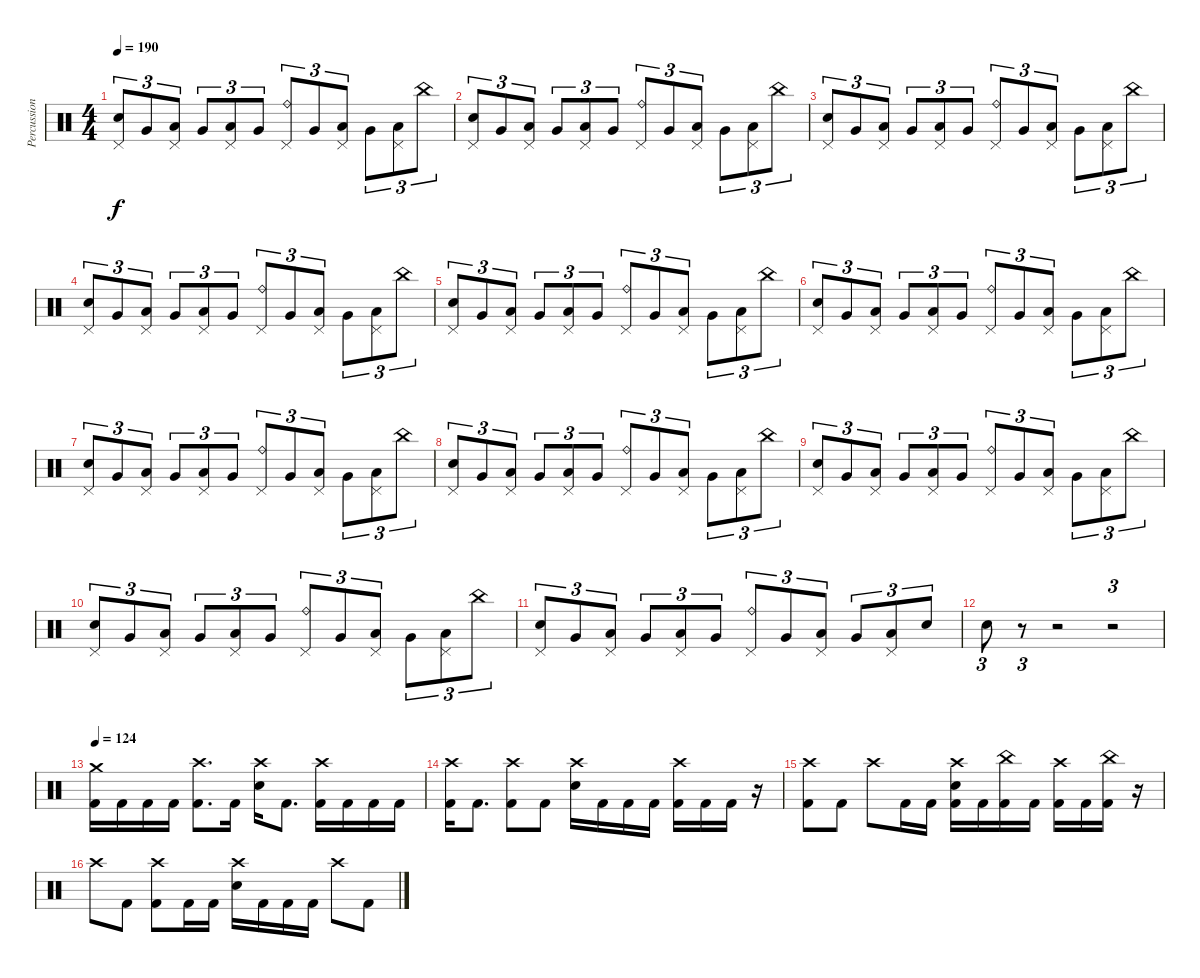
\track ("Percussion" "Percussion") {instrument percussion}
\staff {score}
\articulation defaults
\ts (4 4)
\tempo 190
\clef neutral
\ks c
("Pedal Hi-Hat (hit)" "Electric Snare (hit)").8{tu (3 2) dy f} "Very Low Tom (hit)".8{tu (3 2)} ("Pedal Hi-Hat (hit)" "Low Tom (hit)").8{tu (3 2)} "Very Low Tom (hit)".8{tu (3 2)} ("Pedal Hi-Hat (hit)" "Low Tom (hit)").8{tu (3 2)} "Very Low Tom (hit)".8{tu (3 2)} ("Ride (bell)" "Pedal Hi-Hat (hit)").8{tu (3 2)} "Very Low Tom (hit)".8{tu (3 2)} ("Pedal Hi-Hat (hit)" "Low Tom (hit)").8{tu (3 2)} "Very Low Tom (hit)".8{tu (3 2)} ("Pedal Hi-Hat (hit)" "Low Tom (hit)").8{tu (3 2)} "China (hit)".8{tu (3 2)} |
("Pedal Hi-Hat (hit)" "Electric Snare (hit)").8{tu (3 2)} "Very Low Tom (hit)".8{tu (3 2)} ("Pedal Hi-Hat (hit)" "Low Tom (hit)").8{tu (3 2)} "Very Low Tom (hit)".8{tu (3 2)} ("Pedal Hi-Hat (hit)" "Low Tom (hit)").8{tu (3 2)} "Very Low Tom (hit)".8{tu (3 2)} ("Ride (bell)" "Pedal Hi-Hat (hit)").8{tu (3 2)} "Very Low Tom (hit)".8{tu (3 2)} ("Pedal Hi-Hat (hit)" "Low Tom (hit)").8{tu (3 2)} "Very Low Tom (hit)".8{tu (3 2)} ("Pedal Hi-Hat (hit)" "Low Tom (hit)").8{tu (3 2)} "China (hit)".8{tu (3 2)} |
("Pedal Hi-Hat (hit)" "Electric Snare (hit)").8{tu (3 2)} "Very Low Tom (hit)".8{tu (3 2)} ("Pedal Hi-Hat (hit)" "Low Tom (hit)").8{tu (3 2)} "Very Low Tom (hit)".8{tu (3 2)} ("Pedal Hi-Hat (hit)" "Low Tom (hit)").8{tu (3 2)} "Very Low Tom (hit)".8{tu (3 2)} ("Ride (bell)" "Pedal Hi-Hat (hit)").8{tu (3 2)} "Very Low Tom (hit)".8{tu (3 2)} ("Pedal Hi-Hat (hit)" "Low Tom (hit)").8{tu (3 2)} "Very Low Tom (hit)".8{tu (3 2)} ("Pedal Hi-Hat (hit)" "Low Tom (hit)").8{tu (3 2)} "China (hit)".8{tu (3 2)} |
("Pedal Hi-Hat (hit)" "Electric Snare (hit)").8{tu (3 2)} "Very Low Tom (hit)".8{tu (3 2)} ("Pedal Hi-Hat (hit)" "Low Tom (hit)").8{tu (3 2)} "Very Low Tom (hit)".8{tu (3 2)} ("Pedal Hi-Hat (hit)" "Low Tom (hit)").8{tu (3 2)} "Very Low Tom (hit)".8{tu (3 2)} ("Ride (bell)" "Pedal Hi-Hat (hit)").8{tu (3 2)} "Very Low Tom (hit)".8{tu (3 2)} ("Pedal Hi-Hat (hit)" "Low Tom (hit)").8{tu (3 2)} "Very Low Tom (hit)".8{tu (3 2)} ("Pedal Hi-Hat (hit)" "Low Tom (hit)").8{tu (3 2)} "China (hit)".8{tu (3 2)} |
("Pedal Hi-Hat (hit)" "Electric Snare (hit)").8{tu (3 2)} "Very Low Tom (hit)".8{tu (3 2)} ("Pedal Hi-Hat (hit)" "Low Tom (hit)").8{tu (3 2)} "Very Low Tom (hit)".8{tu (3 2)} ("Pedal Hi-Hat (hit)" "Low Tom (hit)").8{tu (3 2)} "Very Low Tom (hit)".8{tu (3 2)} ("Ride (bell)" "Pedal Hi-Hat (hit)").8{tu (3 2)} "Very Low Tom (hit)".8{tu (3 2)} ("Pedal Hi-Hat (hit)" "Low Tom (hit)").8{tu (3 2)} "Very Low Tom (hit)".8{tu (3 2)} ("Pedal Hi-Hat (hit)" "Low Tom (hit)").8{tu (3 2)} "China (hit)".8{tu (3 2)} |
("Pedal Hi-Hat (hit)" "Electric Snare (hit)").8{tu (3 2)} "Very Low Tom (hit)".8{tu (3 2)} ("Pedal Hi-Hat (hit)" "Low Tom (hit)").8{tu (3 2)} "Very Low Tom (hit)".8{tu (3 2)} ("Pedal Hi-Hat (hit)" "Low Tom (hit)").8{tu (3 2)} "Very Low Tom (hit)".8{tu (3 2)} ("Ride (bell)" "Pedal Hi-Hat (hit)").8{tu (3 2)} "Very Low Tom (hit)".8{tu (3 2)} ("Pedal Hi-Hat (hit)" "Low Tom (hit)").8{tu (3 2)} "Very Low Tom (hit)".8{tu (3 2)} ("Pedal Hi-Hat (hit)" "Low Tom (hit)").8{tu (3 2)} "China (hit)".8{tu (3 2)} |
("Pedal Hi-Hat (hit)" "Electric Snare (hit)").8{tu (3 2)} "Very Low Tom (hit)".8{tu (3 2)} ("Pedal Hi-Hat (hit)" "Low Tom (hit)").8{tu (3 2)} "Very Low Tom (hit)".8{tu (3 2)} ("Pedal Hi-Hat (hit)" "Low Tom (hit)").8{tu (3 2)} "Very Low Tom (hit)".8{tu (3 2)} ("Ride (bell)" "Pedal Hi-Hat (hit)").8{tu (3 2)} "Very Low Tom (hit)".8{tu (3 2)} ("Pedal Hi-Hat (hit)" "Low Tom (hit)").8{tu (3 2)} "Very Low Tom (hit)".8{tu (3 2)} ("Pedal Hi-Hat (hit)" "Low Tom (hit)").8{tu (3 2)} "China (hit)".8{tu (3 2)} |
("Pedal Hi-Hat (hit)" "Electric Snare (hit)").8{tu (3 2)} "Very Low Tom (hit)".8{tu (3 2)} ("Pedal Hi-Hat (hit)" "Low Tom (hit)").8{tu (3 2)} "Very Low Tom (hit)".8{tu (3 2)} ("Pedal Hi-Hat (hit)" "Low Tom (hit)").8{tu (3 2)} "Very Low Tom (hit)".8{tu (3 2)} ("Ride (bell)" "Pedal Hi-Hat (hit)").8{tu (3 2)} "Very Low Tom (hit)".8{tu (3 2)} ("Pedal Hi-Hat (hit)" "Low Tom (hit)").8{tu (3 2)} "Very Low Tom (hit)".8{tu (3 2)} ("Pedal Hi-Hat (hit)" "Low Tom (hit)").8{tu (3 2)} "China (hit)".8{tu (3 2)} |
("Pedal Hi-Hat (hit)" "Electric Snare (hit)").8{tu (3 2)} "Very Low Tom (hit)".8{tu (3 2)} ("Pedal Hi-Hat (hit)" "Low Tom (hit)").8{tu (3 2)} "Very Low Tom (hit)".8{tu (3 2)} ("Pedal Hi-Hat (hit)" "Low Tom (hit)").8{tu (3 2)} "Very Low Tom (hit)".8{tu (3 2)} ("Ride (bell)" "Pedal Hi-Hat (hit)").8{tu (3 2)} "Very Low Tom (hit)".8{tu (3 2)} ("Pedal Hi-Hat (hit)" "Low Tom (hit)").8{tu (3 2)} "Very Low Tom (hit)".8{tu (3 2)} ("Pedal Hi-Hat (hit)" "Low Tom (hit)").8{tu (3 2)} "China (hit)".8{tu (3 2)} |
("Pedal Hi-Hat (hit)" "Electric Snare (hit)").8{tu (3 2)} "Very Low Tom (hit)".8{tu (3 2)} ("Pedal Hi-Hat (hit)" "Low Tom (hit)").8{tu (3 2)} "Very Low Tom (hit)".8{tu (3 2)} ("Pedal Hi-Hat (hit)" "Low Tom (hit)").8{tu (3 2)} "Very Low Tom (hit)".8{tu (3 2)} ("Ride (bell)" "Pedal Hi-Hat (hit)").8{tu (3 2)} "Very Low Tom (hit)".8{tu (3 2)} ("Pedal Hi-Hat (hit)" "Low Tom (hit)").8{tu (3 2)} "Very Low Tom (hit)".8{tu (3 2)} ("Pedal Hi-Hat (hit)" "Low Tom (hit)").8{tu (3 2)} "China (hit)".8{tu (3 2)} |
("Pedal Hi-Hat (hit)" "Electric Snare (hit)").8{tu (3 2)} "Very Low Tom (hit)".8{tu (3 2)} ("Pedal Hi-Hat (hit)" "Low Tom (hit)").8{tu (3 2)} "Very Low Tom (hit)".8{tu (3 2)} ("Pedal Hi-Hat (hit)" "Low Tom (hit)").8{tu (3 2)} "Very Low Tom (hit)".8{tu (3 2)} ("Ride (bell)" "Pedal Hi-Hat (hit)").8{tu (3 2)} "Very Low Tom (hit)".8{tu (3 2)} ("Pedal Hi-Hat (hit)" "Low Tom (hit)").8{tu (3 2)} "Very Low Tom (hit)".8{tu (3 2)} ("Pedal Hi-Hat (hit)" "Low Tom (hit)").8{tu (3 2)} "Electric Snare (hit)".8{tu (3 2)} |
"Electric Snare (hit)".8{tu (3 2)} r.8{tu (3 2)} r.2 r.2{tu (3 2)} |
\tempo 124
("Crash medium (hit)" "Kick (hit) 2").16 "Kick (hit) 2".16 "Kick (hit) 2".16 "Kick (hit) 2".16 ("Crash high (hit)" "Kick (hit) 2").8{d} "Kick (hit) 2".16 ("Crash high (hit)" "Electric Snare (hit)").16 "Kick (hit) 2".8{d} ("Crash high (hit)" "Kick (hit) 2").16 "Kick (hit) 2".16 "Kick (hit) 2".16 "Kick (hit) 2".16 |
("Crash high (hit)" "Kick (hit) 2").16 "Kick (hit) 2".8{d} ("Crash high (hit)" "Kick (hit) 2").8 "Kick (hit) 2".8 ("Crash high (hit)" "Electric Snare (hit)").16 "Kick (hit) 2".16 "Kick (hit) 2".16 "Kick (hit) 2".16 ("Crash high (hit)" "Kick (hit) 2").16 "Kick (hit) 2".16 "Kick (hit) 2".16 r.16 |
("Crash high (hit)" "Kick (hit) 2").8 "Kick (hit) 2".8 "Crash high (hit)".8 "Kick (hit) 2".16 "Kick (hit) 2".16 ("Crash high (hit)" "Electric Snare (hit)" "Kick (hit) 2").16 "Kick (hit) 2".16 ("China (hit)" "Kick (hit) 2").16 "Kick (hit) 2".16 ("Crash high (hit)" "Kick (hit) 2").16 "Kick (hit) 2".16 ("China (hit)" "Kick (hit) 2").16 r.16 |
"Crash high (hit)".8 "Kick (hit) 2".8 ("Crash high (hit)" "Kick (hit) 2").8 "Kick (hit) 2".16 "Kick (hit) 2".16 ("Crash high (hit)" "Electric Snare (hit)").16 "Kick (hit) 2".16 "Kick (hit) 2".16 "Kick (hit) 2".16 "Crash high (hit)".8 "Kick (hit) 2".8
